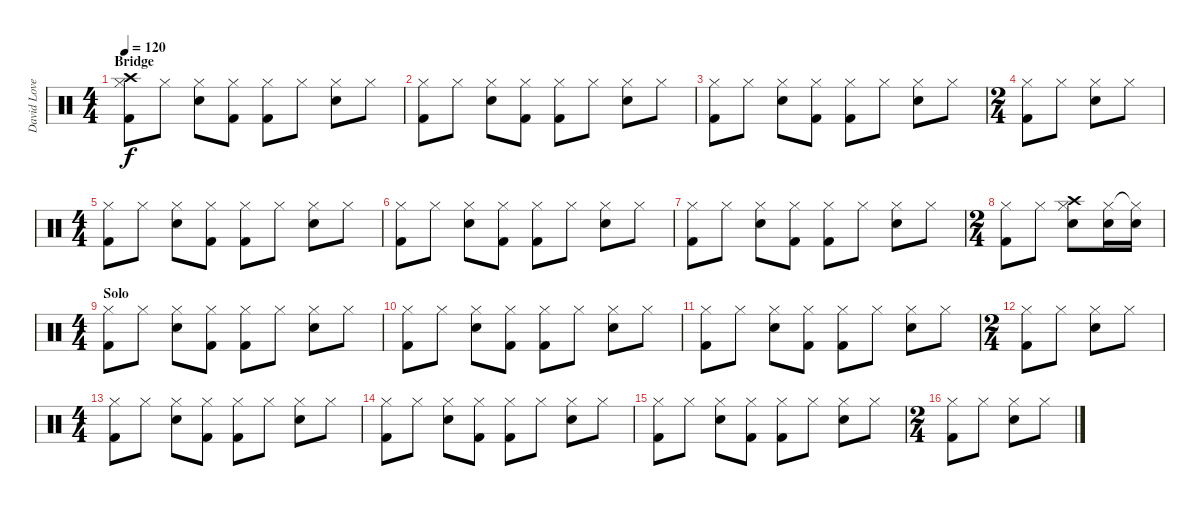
\track ("David Lovering" "David Love") {instrument percussion}
\staff {score}
\articulation defaults
\ts (4 4)
\section ("" "Bridge")
\tempo 120
\clef neutral
\ks c
("Hi-Hat (closed)" "Crash high (hit)" "Kick (hit) 2").8{dy f} "Hi-Hat (closed)".8 ("Hi-Hat (closed)" "Snare (hit) 2").8 ("Hi-Hat (closed)" "Kick (hit) 2").8 ("Hi-Hat (closed)" "Kick (hit) 2").8 "Hi-Hat (closed)".8 ("Hi-Hat (closed)" "Snare (hit) 2").8 "Hi-Hat (closed)".8 |
("Hi-Hat (closed)" "Kick (hit) 2").8 "Hi-Hat (closed)".8 ("Hi-Hat (closed)" "Snare (hit) 2").8 ("Hi-Hat (closed)" "Kick (hit) 2").8 ("Hi-Hat (closed)" "Kick (hit) 2").8 "Hi-Hat (closed)".8 ("Hi-Hat (closed)" "Snare (hit) 2").8 "Hi-Hat (closed)".8 |
("Hi-Hat (closed)" "Kick (hit) 2").8 "Hi-Hat (closed)".8 ("Hi-Hat (closed)" "Snare (hit) 2").8 ("Hi-Hat (closed)" "Kick (hit) 2").8 ("Hi-Hat (closed)" "Kick (hit) 2").8 "Hi-Hat (closed)".8 ("Hi-Hat (closed)" "Snare (hit) 2").8 "Hi-Hat (closed)".8 |
\ts (2 4)
("Hi-Hat (closed)" "Kick (hit) 2").8 "Hi-Hat (closed)".8 ("Hi-Hat (closed)" "Snare (hit) 2").8 "Hi-Hat (closed)".8 |
\ts (4 4)
("Hi-Hat (closed)" "Kick (hit) 2").8 "Hi-Hat (closed)".8 ("Hi-Hat (closed)" "Snare (hit) 2").8 ("Hi-Hat (closed)" "Kick (hit) 2").8 ("Hi-Hat (closed)" "Kick (hit) 2").8 "Hi-Hat (closed)".8 ("Hi-Hat (closed)" "Snare (hit) 2").8 "Hi-Hat (closed)".8 |
("Hi-Hat (closed)" "Kick (hit) 2").8 "Hi-Hat (closed)".8 ("Hi-Hat (closed)" "Snare (hit) 2").8 ("Hi-Hat (closed)" "Kick (hit) 2").8 ("Hi-Hat (closed)" "Kick (hit) 2").8 "Hi-Hat (closed)".8 ("Hi-Hat (closed)" "Snare (hit) 2").8 "Hi-Hat (closed)".8 |
("Hi-Hat (closed)" "Kick (hit) 2").8 "Hi-Hat (closed)".8 ("Hi-Hat (closed)" "Snare (hit) 2").8 ("Hi-Hat (closed)" "Kick (hit) 2").8 ("Hi-Hat (closed)" "Kick (hit) 2").8 "Hi-Hat (closed)".8 ("Hi-Hat (closed)" "Snare (hit) 2").8 "Hi-Hat (closed)".8 |
\ts (2 4)
("Hi-Hat (closed)" "Kick (hit) 2").8 "Hi-Hat (closed)".8 ("Hi-Hat (closed)" "Crash high (hit)" "Snare (hit) 2").8 ("Hi-Hat (closed)" "Snare (hit) 2").16 ("Hi-Hat (closed)"{t} "Snare (hit) 2").16 |
\ts (4 4)
\section ("" "Solo")
("Hi-Hat (closed)" "Kick (hit) 2").8 "Hi-Hat (closed)".8 ("Hi-Hat (closed)" "Snare (hit) 2").8 ("Hi-Hat (closed)" "Kick (hit) 2").8 ("Hi-Hat (closed)" "Kick (hit) 2").8 "Hi-Hat (closed)".8 ("Hi-Hat (closed)" "Snare (hit) 2").8 "Hi-Hat (closed)".8 |
("Hi-Hat (closed)" "Kick (hit) 2").8 "Hi-Hat (closed)".8 ("Hi-Hat (closed)" "Snare (hit) 2").8 ("Hi-Hat (closed)" "Kick (hit) 2").8 ("Hi-Hat (closed)" "Kick (hit) 2").8 "Hi-Hat (closed)".8 ("Hi-Hat (closed)" "Snare (hit) 2").8 "Hi-Hat (closed)".8 |
("Hi-Hat (closed)" "Kick (hit) 2").8 "Hi-Hat (closed)".8 ("Hi-Hat (closed)" "Snare (hit) 2").8 ("Hi-Hat (closed)" "Kick (hit) 2").8 ("Hi-Hat (closed)" "Kick (hit) 2").8 "Hi-Hat (closed)".8 ("Hi-Hat (closed)" "Snare (hit) 2").8 "Hi-Hat (closed)".8 |
\ts (2 4)
("Hi-Hat (closed)" "Kick (hit) 2").8 "Hi-Hat (closed)".8 ("Hi-Hat (closed)" "Snare (hit) 2").8 "Hi-Hat (closed)".8 |
\ts (4 4)
("Hi-Hat (closed)" "Kick (hit) 2").8 "Hi-Hat (closed)".8 ("Hi-Hat (closed)" "Snare (hit) 2").8 ("Hi-Hat (closed)" "Kick (hit) 2").8 ("Hi-Hat (closed)" "Kick (hit) 2").8 "Hi-Hat (closed)".8 ("Hi-Hat (closed)" "Snare (hit) 2").8 "Hi-Hat (closed)".8 |
("Hi-Hat (closed)" "Kick (hit) 2").8 "Hi-Hat (closed)".8 ("Hi-Hat (closed)" "Snare (hit) 2").8 ("Hi-Hat (closed)" "Kick (hit) 2").8 ("Hi-Hat (closed)" "Kick (hit) 2").8 "Hi-Hat (closed)".8 ("Hi-Hat (closed)" "Snare (hit) 2").8 "Hi-Hat (closed)".8 |
("Hi-Hat (closed)" "Kick (hit) 2").8 "Hi-Hat (closed)".8 ("Hi-Hat (closed)" "Snare (hit) 2").8 ("Hi-Hat (closed)" "Kick (hit) 2").8 ("Hi-Hat (closed)" "Kick (hit) 2").8 "Hi-Hat (closed)".8 ("Hi-Hat (closed)" "Snare (hit) 2").8 "Hi-Hat (closed)".8 |
\ts (2 4)
("Hi-Hat (closed)" "Kick (hit) 2").8 "Hi-Hat (closed)".8 ("Hi-Hat (closed)" "Snare (hit) 2").8 "Hi-Hat (closed)".8
